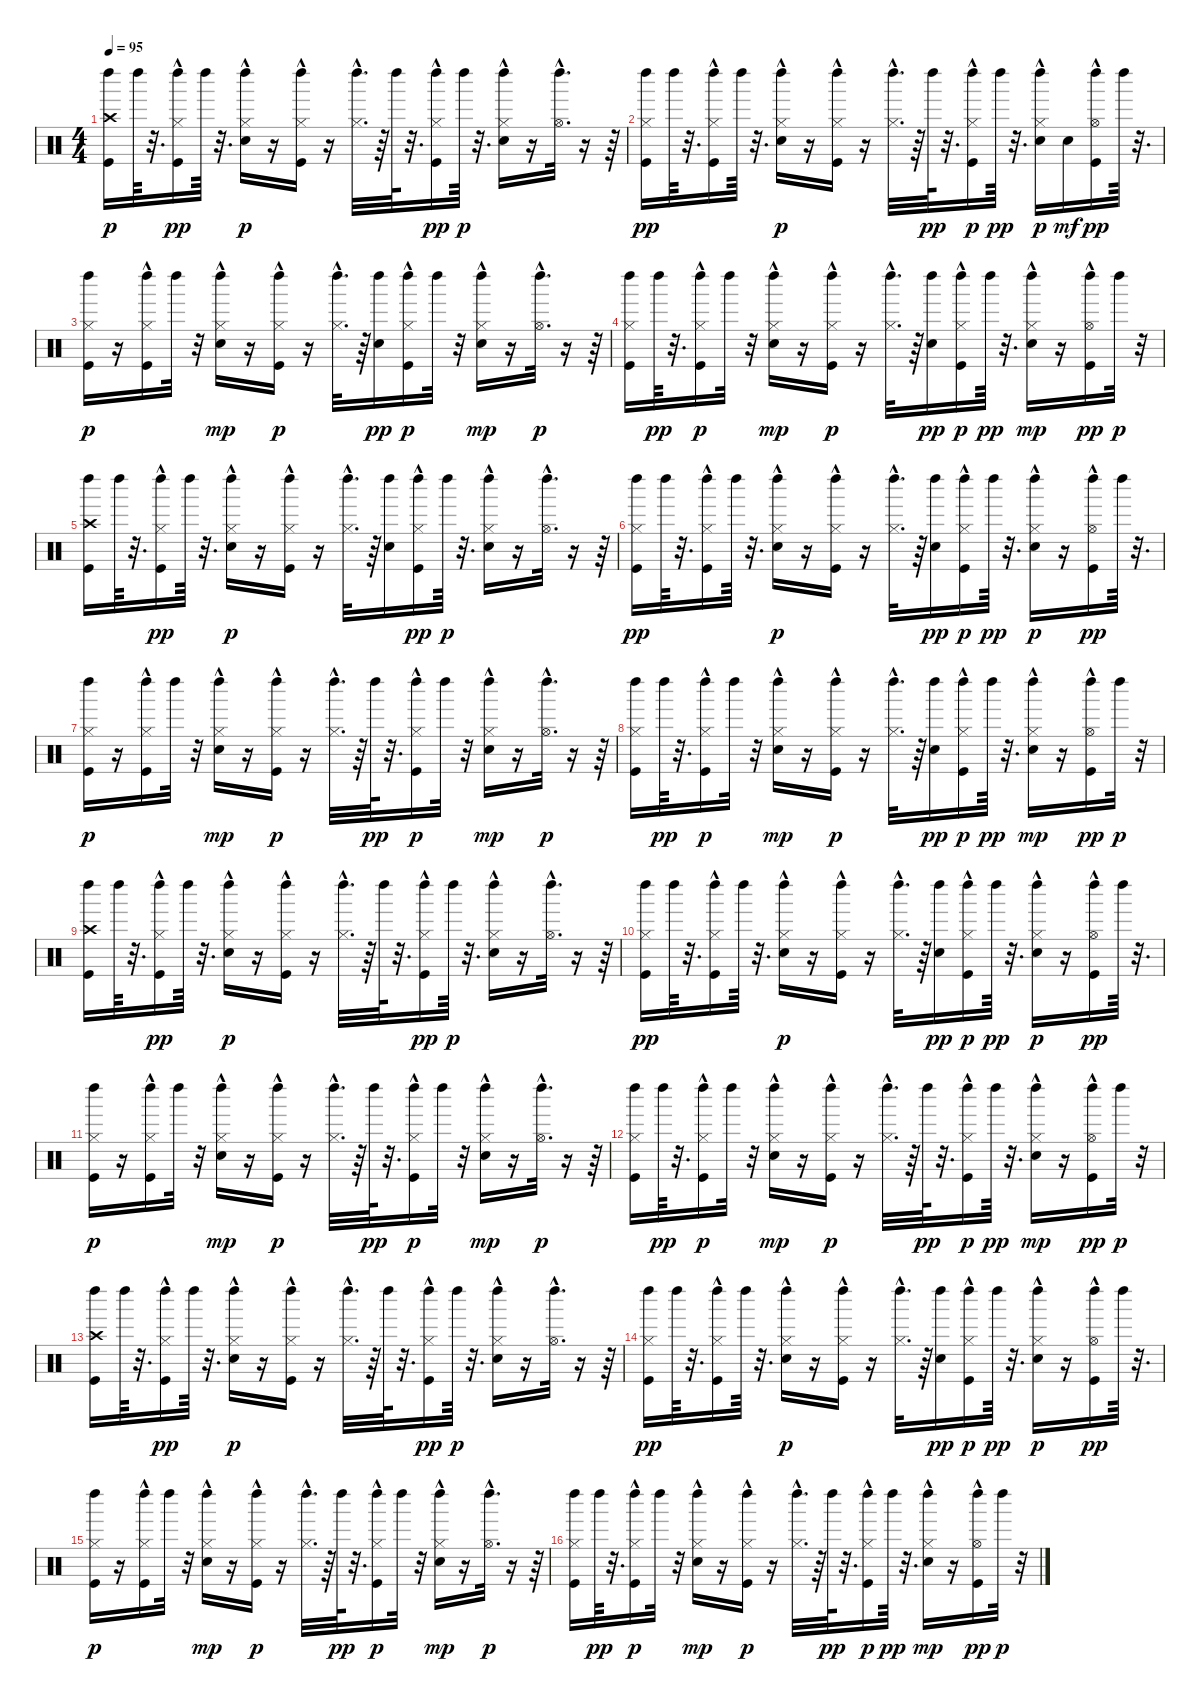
\track "" {instrument percussion}
\staff {score}
\articulation defaults
\ts (4 4)
\tempo 95
\clef neutral
\ks c
("Kick (hit)" "Crash high (hit)" "Left Maraca (hit)").16{dy p} "Left Maraca (hit)".64 r.32{d} ("Kick (hit)" "Hi-Hat (closed)"{hac} "Left Maraca (hit)").16{dy pp} "Left Maraca (hit)".64 r.32{d} ("Electric Snare (hit)" "Hi-Hat (closed)"{hac} "Left Maraca (hit)").16{dy p} r.16 ("Kick (hit)" "Hi-Hat (closed)"{hac} "Left Maraca (hit)").16 r.16 ("Hi-Hat (closed)"{hac} "Left Maraca (hit)").32{d} r.64 "Left Maraca (hit)".64 r.32{d} ("Kick (hit)" "Hi-Hat (closed)"{hac} "Left Maraca (hit)").16{dy pp} "Left Maraca (hit)".64{dy p} r.32{d} ("Electric Snare (hit)" "Hi-Hat (closed)"{hac} "Left Maraca (hit)").16 r.16 ("Hi-Hat (open)"{hac} "Left Maraca (hit)").32{d} r.16 r.64 |
("Kick (hit)" "Hi-Hat (closed)" "Left Maraca (hit)").16{dy pp} "Left Maraca (hit)".64 r.32{d} ("Kick (hit)" "Hi-Hat (closed)"{hac} "Left Maraca (hit)").16 "Left Maraca (hit)".64 r.32{d} ("Electric Snare (hit)" "Hi-Hat (closed)"{hac} "Left Maraca (hit)").16{dy p} r.16 ("Kick (hit)" "Hi-Hat (closed)"{hac} "Left Maraca (hit)").16 r.16 ("Hi-Hat (closed)"{hac} "Left Maraca (hit)").32{d} r.64 "Left Maraca (hit)".64{dy pp} r.32{d} ("Kick (hit)" "Hi-Hat (closed)"{hac} "Left Maraca (hit)").16{dy p} "Left Maraca (hit)".64{dy pp} r.32{d} ("Electric Snare (hit)" "Hi-Hat (closed)"{hac} "Left Maraca (hit)").16{dy p} "Electric Snare (hit)".16{dy mf} ("Kick (hit)" "Hi-Hat (open)"{hac} "Left Maraca (hit)").16{dy pp} "Left Maraca (hit)".64 r.32{d} |
("Kick (hit)" "Hi-Hat (closed)" "Left Maraca (hit)").16{dy p} r.16 ("Kick (hit)" "Hi-Hat (closed)"{hac} "Left Maraca (hit)").16 "Left Maraca (hit)".32 r.32 ("Electric Snare (hit)" "Hi-Hat (closed)"{hac} "Left Maraca (hit)").16{dy mp} r.16 ("Kick (hit)" "Hi-Hat (closed)"{hac} "Left Maraca (hit)").16{dy p} r.16 ("Hi-Hat (closed)"{hac} "Left Maraca (hit)").32{d} r.64 ("Electric Snare (hit)" "Left Maraca (hit)").16{dy pp} ("Kick (hit)" "Hi-Hat (closed)"{hac} "Left Maraca (hit)").16{dy p} "Left Maraca (hit)".32 r.32 ("Electric Snare (hit)" "Hi-Hat (closed)"{hac} "Left Maraca (hit)").16{dy mp} r.16 ("Hi-Hat (open)"{hac} "Left Maraca (hit)").32{d dy p} r.16 r.64 |
("Kick (hit)" "Hi-Hat (closed)" "Left Maraca (hit)").16 "Left Maraca (hit)".64{dy pp} r.32{d} ("Kick (hit)" "Hi-Hat (closed)"{hac} "Left Maraca (hit)").16{dy p} "Left Maraca (hit)".32 r.32 ("Electric Snare (hit)" "Hi-Hat (closed)"{hac} "Left Maraca (hit)").16{dy mp} r.16 ("Kick (hit)" "Hi-Hat (closed)"{hac} "Left Maraca (hit)").16{dy p} r.16 ("Hi-Hat (closed)"{hac} "Left Maraca (hit)").32{d} r.64 ("Electric Snare (hit)" "Left Maraca (hit)").16{dy pp} ("Kick (hit)" "Hi-Hat (closed)"{hac} "Left Maraca (hit)").16{dy p} "Left Maraca (hit)".64{dy pp} r.32{d} ("Electric Snare (hit)" "Hi-Hat (closed)"{hac} "Left Maraca (hit)").16{dy mp} r.16 ("Kick (hit)" "Hi-Hat (open)"{hac} "Left Maraca (hit)").16{dy pp} "Left Maraca (hit)".32{dy p} r.32 |
("Kick (hit)" "Crash high (hit)" "Left Maraca (hit)").16 "Left Maraca (hit)".64 r.32{d} ("Kick (hit)" "Hi-Hat (closed)"{hac} "Left Maraca (hit)").16{dy pp} "Left Maraca (hit)".64 r.32{d} ("Electric Snare (hit)" "Hi-Hat (closed)"{hac} "Left Maraca (hit)").16{dy p} r.16 ("Kick (hit)" "Hi-Hat (closed)"{hac} "Left Maraca (hit)").16 r.16 ("Hi-Hat (closed)"{hac} "Left Maraca (hit)").32{d} r.64 ("Electric Snare (hit)" "Left Maraca (hit)").16 ("Kick (hit)" "Hi-Hat (closed)"{hac} "Left Maraca (hit)").16{dy pp} "Left Maraca (hit)".64{dy p} r.32{d} ("Electric Snare (hit)" "Hi-Hat (closed)"{hac} "Left Maraca (hit)").16 r.16 ("Hi-Hat (open)"{hac} "Left Maraca (hit)").32{d} r.16 r.64 |
("Kick (hit)" "Hi-Hat (closed)" "Left Maraca (hit)").16{dy pp} "Left Maraca (hit)".64 r.32{d} ("Kick (hit)" "Hi-Hat (closed)"{hac} "Left Maraca (hit)").16 "Left Maraca (hit)".64 r.32{d} ("Electric Snare (hit)" "Hi-Hat (closed)"{hac} "Left Maraca (hit)").16{dy p} r.16 ("Kick (hit)" "Hi-Hat (closed)"{hac} "Left Maraca (hit)").16 r.16 ("Hi-Hat (closed)"{hac} "Left Maraca (hit)").32{d} r.64 ("Electric Snare (hit)" "Left Maraca (hit)").16{dy pp} ("Kick (hit)" "Hi-Hat (closed)"{hac} "Left Maraca (hit)").16{dy p} "Left Maraca (hit)".64{dy pp} r.32{d} ("Electric Snare (hit)" "Hi-Hat (closed)"{hac} "Left Maraca (hit)").16{dy p} r.16 ("Kick (hit)" "Hi-Hat (open)"{hac} "Left Maraca (hit)").16{dy pp} "Left Maraca (hit)".64 r.32{d} |
("Kick (hit)" "Hi-Hat (closed)" "Left Maraca (hit)").16{dy p} r.16 ("Kick (hit)" "Hi-Hat (closed)"{hac} "Left Maraca (hit)").16 "Left Maraca (hit)".32 r.32 ("Electric Snare (hit)" "Hi-Hat (closed)"{hac} "Left Maraca (hit)").16{dy mp} r.16 ("Kick (hit)" "Hi-Hat (closed)"{hac} "Left Maraca (hit)").16{dy p} r.16 ("Hi-Hat (closed)"{hac} "Left Maraca (hit)").32{d} r.64 "Left Maraca (hit)".64{dy pp} r.32{d} ("Kick (hit)" "Hi-Hat (closed)"{hac} "Left Maraca (hit)").16{dy p} "Left Maraca (hit)".32 r.32 ("Electric Snare (hit)" "Hi-Hat (closed)"{hac} "Left Maraca (hit)").16{dy mp} r.16 ("Hi-Hat (open)"{hac} "Left Maraca (hit)").32{d dy p} r.16 r.64 |
("Kick (hit)" "Hi-Hat (closed)" "Left Maraca (hit)").16 "Left Maraca (hit)".64{dy pp} r.32{d} ("Kick (hit)" "Hi-Hat (closed)"{hac} "Left Maraca (hit)").16{dy p} "Left Maraca (hit)".32 r.32 ("Electric Snare (hit)" "Hi-Hat (closed)"{hac} "Left Maraca (hit)").16{dy mp} r.16 ("Kick (hit)" "Hi-Hat (closed)"{hac} "Left Maraca (hit)").16{dy p} r.16 ("Hi-Hat (closed)"{hac} "Left Maraca (hit)").32{d} r.64 ("Electric Snare (hit)" "Left Maraca (hit)").16{dy pp} ("Kick (hit)" "Hi-Hat (closed)"{hac} "Left Maraca (hit)").16{dy p} "Left Maraca (hit)".64{dy pp} r.32{d} ("Electric Snare (hit)" "Hi-Hat (closed)"{hac} "Left Maraca (hit)").16{dy mp} r.16 ("Kick (hit)" "Hi-Hat (open)"{hac} "Left Maraca (hit)").16{dy pp} "Left Maraca (hit)".32{dy p} r.32 |
("Kick (hit)" "Crash high (hit)" "Left Maraca (hit)").16 "Left Maraca (hit)".64 r.32{d} ("Kick (hit)" "Hi-Hat (closed)"{hac} "Left Maraca (hit)").16{dy pp} "Left Maraca (hit)".64 r.32{d} ("Electric Snare (hit)" "Hi-Hat (closed)"{hac} "Left Maraca (hit)").16{dy p} r.16 ("Kick (hit)" "Hi-Hat (closed)"{hac} "Left Maraca (hit)").16 r.16 ("Hi-Hat (closed)"{hac} "Left Maraca (hit)").32{d} r.64 "Left Maraca (hit)".64 r.32{d} ("Kick (hit)" "Hi-Hat (closed)"{hac} "Left Maraca (hit)").16{dy pp} "Left Maraca (hit)".64{dy p} r.32{d} ("Electric Snare (hit)" "Hi-Hat (closed)"{hac} "Left Maraca (hit)").16 r.16 ("Hi-Hat (open)"{hac} "Left Maraca (hit)").32{d} r.16 r.64 |
("Kick (hit)" "Hi-Hat (closed)" "Left Maraca (hit)").16{dy pp} "Left Maraca (hit)".64 r.32{d} ("Kick (hit)" "Hi-Hat (closed)"{hac} "Left Maraca (hit)").16 "Left Maraca (hit)".64 r.32{d} ("Electric Snare (hit)" "Hi-Hat (closed)"{hac} "Left Maraca (hit)").16{dy p} r.16 ("Kick (hit)" "Hi-Hat (closed)"{hac} "Left Maraca (hit)").16 r.16 ("Hi-Hat (closed)"{hac} "Left Maraca (hit)").32{d} r.64 ("Electric Snare (hit)" "Left Maraca (hit)").16{dy pp} ("Kick (hit)" "Hi-Hat (closed)"{hac} "Left Maraca (hit)").16{dy p} "Left Maraca (hit)".64{dy pp} r.32{d} ("Electric Snare (hit)" "Hi-Hat (closed)"{hac} "Left Maraca (hit)").16{dy p} r.16 ("Kick (hit)" "Hi-Hat (open)"{hac} "Left Maraca (hit)").16{dy pp} "Left Maraca (hit)".64 r.32{d} |
("Kick (hit)" "Hi-Hat (closed)" "Left Maraca (hit)").16{dy p} r.16 ("Kick (hit)" "Hi-Hat (closed)"{hac} "Left Maraca (hit)").16 "Left Maraca (hit)".32 r.32 ("Electric Snare (hit)" "Hi-Hat (closed)"{hac} "Left Maraca (hit)").16{dy mp} r.16 ("Kick (hit)" "Hi-Hat (closed)"{hac} "Left Maraca (hit)").16{dy p} r.16 ("Hi-Hat (closed)"{hac} "Left Maraca (hit)").32{d} r.64 "Left Maraca (hit)".64{dy pp} r.32{d} ("Kick (hit)" "Hi-Hat (closed)"{hac} "Left Maraca (hit)").16{dy p} "Left Maraca (hit)".32 r.32 ("Electric Snare (hit)" "Hi-Hat (closed)"{hac} "Left Maraca (hit)").16{dy mp} r.16 ("Hi-Hat (open)"{hac} "Left Maraca (hit)").32{d dy p} r.16 r.64 |
("Kick (hit)" "Hi-Hat (closed)" "Left Maraca (hit)").16 "Left Maraca (hit)".64{dy pp} r.32{d} ("Kick (hit)" "Hi-Hat (closed)"{hac} "Left Maraca (hit)").16{dy p} "Left Maraca (hit)".32 r.32 ("Electric Snare (hit)" "Hi-Hat (closed)"{hac} "Left Maraca (hit)").16{dy mp} r.16 ("Kick (hit)" "Hi-Hat (closed)"{hac} "Left Maraca (hit)").16{dy p} r.16 ("Hi-Hat (closed)"{hac} "Left Maraca (hit)").32{d} r.64 "Left Maraca (hit)".64{dy pp} r.32{d} ("Kick (hit)" "Hi-Hat (closed)"{hac} "Left Maraca (hit)").16{dy p} "Left Maraca (hit)".64{dy pp} r.32{d} ("Electric Snare (hit)" "Hi-Hat (closed)"{hac} "Left Maraca (hit)").16{dy mp} r.16 ("Kick (hit)" "Hi-Hat (open)"{hac} "Left Maraca (hit)").16{dy pp} "Left Maraca (hit)".32{dy p} r.32 |
("Kick (hit)" "Crash high (hit)" "Left Maraca (hit)").16 "Left Maraca (hit)".64 r.32{d} ("Kick (hit)" "Hi-Hat (closed)"{hac} "Left Maraca (hit)").16{dy pp} "Left Maraca (hit)".64 r.32{d} ("Electric Snare (hit)" "Hi-Hat (closed)"{hac} "Left Maraca (hit)").16{dy p} r.16 ("Kick (hit)" "Hi-Hat (closed)"{hac} "Left Maraca (hit)").16 r.16 ("Hi-Hat (closed)"{hac} "Left Maraca (hit)").32{d} r.64 "Left Maraca (hit)".64 r.32{d} ("Kick (hit)" "Hi-Hat (closed)"{hac} "Left Maraca (hit)").16{dy pp} "Left Maraca (hit)".64{dy p} r.32{d} ("Electric Snare (hit)" "Hi-Hat (closed)"{hac} "Left Maraca (hit)").16 r.16 ("Hi-Hat (open)"{hac} "Left Maraca (hit)").32{d} r.16 r.64 |
("Kick (hit)" "Hi-Hat (closed)" "Left Maraca (hit)").16{dy pp} "Left Maraca (hit)".64 r.32{d} ("Kick (hit)" "Hi-Hat (closed)"{hac} "Left Maraca (hit)").16 "Left Maraca (hit)".64 r.32{d} ("Electric Snare (hit)" "Hi-Hat (closed)"{hac} "Left Maraca (hit)").16{dy p} r.16 ("Kick (hit)" "Hi-Hat (closed)"{hac} "Left Maraca (hit)").16 r.16 ("Hi-Hat (closed)"{hac} "Left Maraca (hit)").32{d} r.64 ("Electric Snare (hit)" "Left Maraca (hit)").16{dy pp} ("Kick (hit)" "Hi-Hat (closed)"{hac} "Left Maraca (hit)").16{dy p} "Left Maraca (hit)".64{dy pp} r.32{d} ("Electric Snare (hit)" "Hi-Hat (closed)"{hac} "Left Maraca (hit)").16{dy p} r.16 ("Kick (hit)" "Hi-Hat (open)"{hac} "Left Maraca (hit)").16{dy pp} "Left Maraca (hit)".64 r.32{d} |
("Kick (hit)" "Hi-Hat (closed)" "Left Maraca (hit)").16{dy p} r.16 ("Kick (hit)" "Hi-Hat (closed)"{hac} "Left Maraca (hit)").16 "Left Maraca (hit)".32 r.32 ("Electric Snare (hit)" "Hi-Hat (closed)"{hac} "Left Maraca (hit)").16{dy mp} r.16 ("Kick (hit)" "Hi-Hat (closed)"{hac} "Left Maraca (hit)").16{dy p} r.16 ("Hi-Hat (closed)"{hac} "Left Maraca (hit)").32{d} r.64 "Left Maraca (hit)".64{dy pp} r.32{d} ("Kick (hit)" "Hi-Hat (closed)"{hac} "Left Maraca (hit)").16{dy p} "Left Maraca (hit)".32 r.32 ("Electric Snare (hit)" "Hi-Hat (closed)"{hac} "Left Maraca (hit)").16{dy mp} r.16 ("Hi-Hat (open)"{hac} "Left Maraca (hit)").32{d dy p} r.16 r.64 |
("Kick (hit)" "Hi-Hat (closed)" "Left Maraca (hit)").16 "Left Maraca (hit)".64{dy pp} r.32{d} ("Kick (hit)" "Hi-Hat (closed)"{hac} "Left Maraca (hit)").16{dy p} "Left Maraca (hit)".32 r.32 ("Electric Snare (hit)" "Hi-Hat (closed)"{hac} "Left Maraca (hit)").16{dy mp} r.16 ("Kick (hit)" "Hi-Hat (closed)"{hac} "Left Maraca (hit)").16{dy p} r.16 ("Hi-Hat (closed)"{hac} "Left Maraca (hit)").32{d} r.64 "Left Maraca (hit)".64{dy pp} r.32{d} ("Kick (hit)" "Hi-Hat (closed)"{hac} "Left Maraca (hit)").16{dy p} "Left Maraca (hit)".64{dy pp} r.32{d} ("Electric Snare (hit)" "Hi-Hat (closed)"{hac} "Left Maraca (hit)").16{dy mp} r.16 ("Kick (hit)" "Hi-Hat (open)"{hac} "Left Maraca (hit)").16{dy pp} "Left Maraca (hit)".32{dy p} r.32
